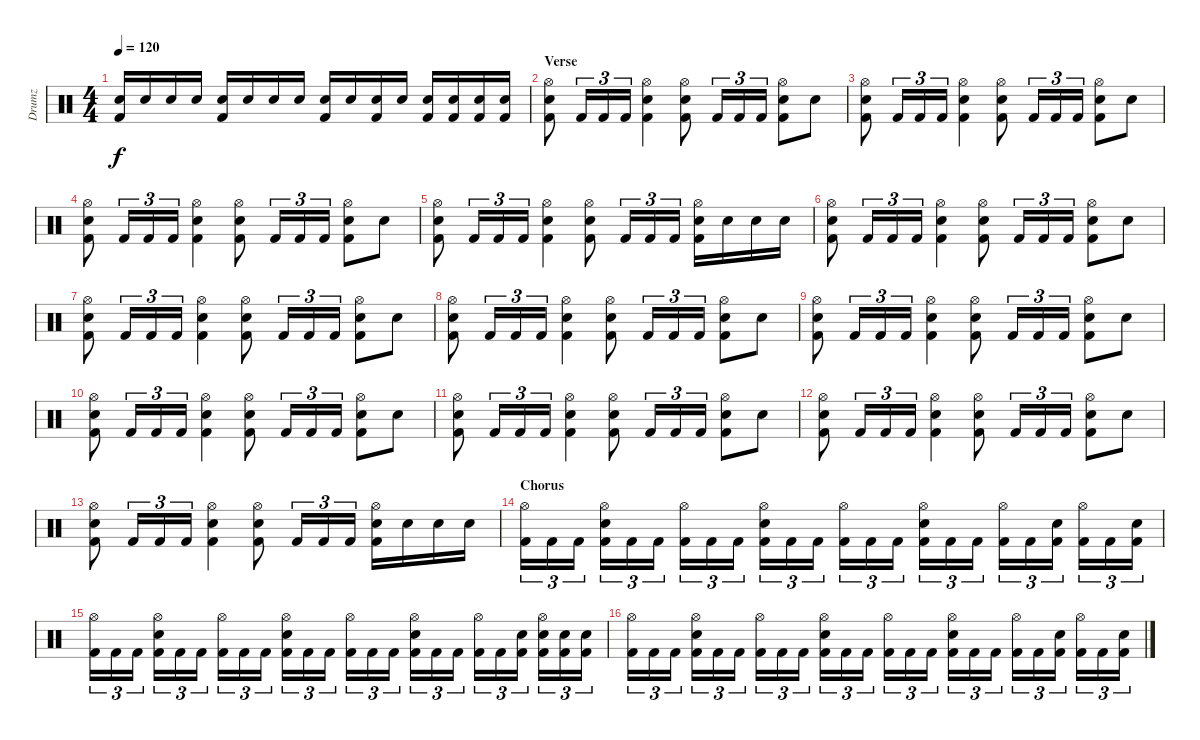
\track ("Drumz" "Drumz") {instrument percussion}
\staff {score}
\articulation defaults
\ts (4 4)
\tempo 120
\clef neutral
\ks c
("Snare (hit) 2" "Kick (hit) 2").16{dy f} "Snare (hit) 2".16 "Snare (hit) 2".16 "Snare (hit) 2".16 ("Snare (hit) 2" "Kick (hit) 2").16 "Snare (hit) 2".16 "Snare (hit) 2".16 "Snare (hit) 2".16 ("Snare (hit) 2" "Kick (hit) 2").16 "Snare (hit) 2".16 ("Snare (hit) 2" "Kick (hit) 2").16 "Snare (hit) 2".16 ("Snare (hit) 2" "Kick (hit) 2").16 ("Snare (hit) 2" "Kick (hit) 2").16 ("Snare (hit) 2" "Kick (hit) 2").16 ("Snare (hit) 2" "Kick (hit) 2").16 |
\section ("" "Verse")
("Hi-Hat (open)" "Snare (hit) 2" "Kick (hit) 2").8 "Kick (hit) 2".16{tu (3 2)} "Kick (hit) 2".16{tu (3 2)} "Kick (hit) 2".16{tu (3 2)} ("Hi-Hat (open)" "Snare (hit) 2" "Kick (hit) 2").4 ("Hi-Hat (open)" "Snare (hit) 2" "Kick (hit) 2").8 "Kick (hit) 2".16{tu (3 2)} "Kick (hit) 2".16{tu (3 2)} "Kick (hit) 2".16{tu (3 2)} ("Hi-Hat (open)" "Snare (hit) 2" "Kick (hit) 2").8 "Snare (hit) 2".8 |
("Hi-Hat (open)" "Snare (hit) 2" "Kick (hit) 2").8 "Kick (hit) 2".16{tu (3 2)} "Kick (hit) 2".16{tu (3 2)} "Kick (hit) 2".16{tu (3 2)} ("Hi-Hat (open)" "Snare (hit) 2" "Kick (hit) 2").4 ("Hi-Hat (open)" "Snare (hit) 2" "Kick (hit) 2").8 "Kick (hit) 2".16{tu (3 2)} "Kick (hit) 2".16{tu (3 2)} "Kick (hit) 2".16{tu (3 2)} ("Hi-Hat (open)" "Snare (hit) 2" "Kick (hit) 2").8 "Snare (hit) 2".8 |
("Hi-Hat (open)" "Snare (hit) 2" "Kick (hit) 2").8 "Kick (hit) 2".16{tu (3 2)} "Kick (hit) 2".16{tu (3 2)} "Kick (hit) 2".16{tu (3 2)} ("Hi-Hat (open)" "Snare (hit) 2" "Kick (hit) 2").4 ("Hi-Hat (open)" "Snare (hit) 2" "Kick (hit) 2").8 "Kick (hit) 2".16{tu (3 2)} "Kick (hit) 2".16{tu (3 2)} "Kick (hit) 2".16{tu (3 2)} ("Hi-Hat (open)" "Snare (hit) 2" "Kick (hit) 2").8 "Snare (hit) 2".8 |
("Hi-Hat (open)" "Snare (hit) 2" "Kick (hit) 2").8 "Kick (hit) 2".16{tu (3 2)} "Kick (hit) 2".16{tu (3 2)} "Kick (hit) 2".16{tu (3 2)} ("Hi-Hat (open)" "Snare (hit) 2" "Kick (hit) 2").4 ("Hi-Hat (open)" "Snare (hit) 2" "Kick (hit) 2").8 "Kick (hit) 2".16{tu (3 2)} "Kick (hit) 2".16{tu (3 2)} "Kick (hit) 2".16{tu (3 2)} ("Hi-Hat (open)" "Snare (hit) 2" "Kick (hit) 2").16 "Snare (hit) 2".16 "Snare (hit) 2".16 "Snare (hit) 2".16 |
("Hi-Hat (open)" "Snare (hit) 2" "Kick (hit) 2").8 "Kick (hit) 2".16{tu (3 2)} "Kick (hit) 2".16{tu (3 2)} "Kick (hit) 2".16{tu (3 2)} ("Hi-Hat (open)" "Snare (hit) 2" "Kick (hit) 2").4 ("Hi-Hat (open)" "Snare (hit) 2" "Kick (hit) 2").8 "Kick (hit) 2".16{tu (3 2)} "Kick (hit) 2".16{tu (3 2)} "Kick (hit) 2".16{tu (3 2)} ("Hi-Hat (open)" "Snare (hit) 2" "Kick (hit) 2").8 "Snare (hit) 2".8 |
("Hi-Hat (open)" "Snare (hit) 2" "Kick (hit) 2").8 "Kick (hit) 2".16{tu (3 2)} "Kick (hit) 2".16{tu (3 2)} "Kick (hit) 2".16{tu (3 2)} ("Hi-Hat (open)" "Snare (hit) 2" "Kick (hit) 2").4 ("Hi-Hat (open)" "Snare (hit) 2" "Kick (hit) 2").8 "Kick (hit) 2".16{tu (3 2)} "Kick (hit) 2".16{tu (3 2)} "Kick (hit) 2".16{tu (3 2)} ("Hi-Hat (open)" "Snare (hit) 2" "Kick (hit) 2").8 "Snare (hit) 2".8 |
("Hi-Hat (open)" "Snare (hit) 2" "Kick (hit) 2").8 "Kick (hit) 2".16{tu (3 2)} "Kick (hit) 2".16{tu (3 2)} "Kick (hit) 2".16{tu (3 2)} ("Hi-Hat (open)" "Snare (hit) 2" "Kick (hit) 2").4 ("Hi-Hat (open)" "Snare (hit) 2" "Kick (hit) 2").8 "Kick (hit) 2".16{tu (3 2)} "Kick (hit) 2".16{tu (3 2)} "Kick (hit) 2".16{tu (3 2)} ("Hi-Hat (open)" "Snare (hit) 2" "Kick (hit) 2").8 "Snare (hit) 2".8 |
("Hi-Hat (open)" "Snare (hit) 2" "Kick (hit) 2").8 "Kick (hit) 2".16{tu (3 2)} "Kick (hit) 2".16{tu (3 2)} "Kick (hit) 2".16{tu (3 2)} ("Hi-Hat (open)" "Snare (hit) 2" "Kick (hit) 2").4 ("Hi-Hat (open)" "Snare (hit) 2" "Kick (hit) 2").8 "Kick (hit) 2".16{tu (3 2)} "Kick (hit) 2".16{tu (3 2)} "Kick (hit) 2".16{tu (3 2)} ("Hi-Hat (open)" "Snare (hit) 2" "Kick (hit) 2").8 "Snare (hit) 2".8 |
("Hi-Hat (open)" "Snare (hit) 2" "Kick (hit) 2").8 "Kick (hit) 2".16{tu (3 2)} "Kick (hit) 2".16{tu (3 2)} "Kick (hit) 2".16{tu (3 2)} ("Hi-Hat (open)" "Snare (hit) 2" "Kick (hit) 2").4 ("Hi-Hat (open)" "Snare (hit) 2" "Kick (hit) 2").8 "Kick (hit) 2".16{tu (3 2)} "Kick (hit) 2".16{tu (3 2)} "Kick (hit) 2".16{tu (3 2)} ("Hi-Hat (open)" "Snare (hit) 2" "Kick (hit) 2").8 "Snare (hit) 2".8 |
("Hi-Hat (open)" "Snare (hit) 2" "Kick (hit) 2").8 "Kick (hit) 2".16{tu (3 2)} "Kick (hit) 2".16{tu (3 2)} "Kick (hit) 2".16{tu (3 2)} ("Hi-Hat (open)" "Snare (hit) 2" "Kick (hit) 2").4 ("Hi-Hat (open)" "Snare (hit) 2" "Kick (hit) 2").8 "Kick (hit) 2".16{tu (3 2)} "Kick (hit) 2".16{tu (3 2)} "Kick (hit) 2".16{tu (3 2)} ("Hi-Hat (open)" "Snare (hit) 2" "Kick (hit) 2").8 "Snare (hit) 2".8 |
("Hi-Hat (open)" "Snare (hit) 2" "Kick (hit) 2").8 "Kick (hit) 2".16{tu (3 2)} "Kick (hit) 2".16{tu (3 2)} "Kick (hit) 2".16{tu (3 2)} ("Hi-Hat (open)" "Snare (hit) 2" "Kick (hit) 2").4 ("Hi-Hat (open)" "Snare (hit) 2" "Kick (hit) 2").8 "Kick (hit) 2".16{tu (3 2)} "Kick (hit) 2".16{tu (3 2)} "Kick (hit) 2".16{tu (3 2)} ("Hi-Hat (open)" "Snare (hit) 2" "Kick (hit) 2").8 "Snare (hit) 2".8 |
("Hi-Hat (open)" "Snare (hit) 2" "Kick (hit) 2").8 "Kick (hit) 2".16{tu (3 2)} "Kick (hit) 2".16{tu (3 2)} "Kick (hit) 2".16{tu (3 2)} ("Hi-Hat (open)" "Snare (hit) 2" "Kick (hit) 2").4 ("Hi-Hat (open)" "Snare (hit) 2" "Kick (hit) 2").8 "Kick (hit) 2".16{tu (3 2)} "Kick (hit) 2".16{tu (3 2)} "Kick (hit) 2".16{tu (3 2)} ("Hi-Hat (open)" "Snare (hit) 2" "Kick (hit) 2").16 "Snare (hit) 2".16 "Snare (hit) 2".16 "Snare (hit) 2".16 |
\section ("" "Chorus")
("Hi-Hat (open)" "Kick (hit) 2").16{tu (3 2)} "Kick (hit) 2".16{tu (3 2)} "Kick (hit) 2".16{tu (3 2)} ("Hi-Hat (open)" "Snare (hit) 2" "Kick (hit) 2").16{tu (3 2)} "Kick (hit) 2".16{tu (3 2)} "Kick (hit) 2".16{tu (3 2)} ("Hi-Hat (open)" "Kick (hit) 2").16{tu (3 2)} "Kick (hit) 2".16{tu (3 2)} "Kick (hit) 2".16{tu (3 2)} ("Hi-Hat (open)" "Snare (hit) 2" "Kick (hit) 2").16{tu (3 2)} "Kick (hit) 2".16{tu (3 2)} "Kick (hit) 2".16{tu (3 2)} ("Hi-Hat (open)" "Kick (hit) 2").16{tu (3 2)} "Kick (hit) 2".16{tu (3 2)} "Kick (hit) 2".16{tu (3 2)} ("Hi-Hat (open)" "Snare (hit) 2" "Kick (hit) 2").16{tu (3 2)} "Kick (hit) 2".16{tu (3 2)} "Kick (hit) 2".16{tu (3 2)} ("Hi-Hat (open)" "Kick (hit) 2").16{tu (3 2)} "Kick (hit) 2".16{tu (3 2)} ("Snare (hit) 2" "Kick (hit) 2").16{tu (3 2)} ("Hi-Hat (open)" "Kick (hit) 2").16{tu (3 2)} "Kick (hit) 2".16{tu (3 2)} ("Snare (hit) 2" "Kick (hit) 2").16{tu (3 2)} |
("Hi-Hat (open)" "Kick (hit) 2").16{tu (3 2)} "Kick (hit) 2".16{tu (3 2)} "Kick (hit) 2".16{tu (3 2)} ("Hi-Hat (open)" "Snare (hit) 2" "Kick (hit) 2").16{tu (3 2)} "Kick (hit) 2".16{tu (3 2)} "Kick (hit) 2".16{tu (3 2)} ("Hi-Hat (open)" "Kick (hit) 2").16{tu (3 2)} "Kick (hit) 2".16{tu (3 2)} "Kick (hit) 2".16{tu (3 2)} ("Hi-Hat (open)" "Snare (hit) 2" "Kick (hit) 2").16{tu (3 2)} "Kick (hit) 2".16{tu (3 2)} "Kick (hit) 2".16{tu (3 2)} ("Hi-Hat (open)" "Kick (hit) 2").16{tu (3 2)} "Kick (hit) 2".16{tu (3 2)} "Kick (hit) 2".16{tu (3 2)} ("Hi-Hat (open)" "Snare (hit) 2" "Kick (hit) 2").16{tu (3 2)} "Kick (hit) 2".16{tu (3 2)} "Kick (hit) 2".16{tu (3 2)} ("Hi-Hat (open)" "Kick (hit) 2").16{tu (3 2)} "Kick (hit) 2".16{tu (3 2)} ("Snare (hit) 2" "Kick (hit) 2").16{tu (3 2)} ("Hi-Hat (open)" "Snare (hit) 2" "Kick (hit) 2").16{tu (3 2)} ("Snare (hit) 2" "Kick (hit) 2").16{tu (3 2)} ("Snare (hit) 2" "Kick (hit) 2").16{tu (3 2)} |
("Hi-Hat (open)" "Kick (hit) 2").16{tu (3 2)} "Kick (hit) 2".16{tu (3 2)} "Kick (hit) 2".16{tu (3 2)} ("Hi-Hat (open)" "Snare (hit) 2" "Kick (hit) 2").16{tu (3 2)} "Kick (hit) 2".16{tu (3 2)} "Kick (hit) 2".16{tu (3 2)} ("Hi-Hat (open)" "Kick (hit) 2").16{tu (3 2)} "Kick (hit) 2".16{tu (3 2)} "Kick (hit) 2".16{tu (3 2)} ("Hi-Hat (open)" "Snare (hit) 2" "Kick (hit) 2").16{tu (3 2)} "Kick (hit) 2".16{tu (3 2)} "Kick (hit) 2".16{tu (3 2)} ("Hi-Hat (open)" "Kick (hit) 2").16{tu (3 2)} "Kick (hit) 2".16{tu (3 2)} "Kick (hit) 2".16{tu (3 2)} ("Hi-Hat (open)" "Snare (hit) 2" "Kick (hit) 2").16{tu (3 2)} "Kick (hit) 2".16{tu (3 2)} "Kick (hit) 2".16{tu (3 2)} ("Hi-Hat (open)" "Kick (hit) 2").16{tu (3 2)} "Kick (hit) 2".16{tu (3 2)} ("Snare (hit) 2" "Kick (hit) 2").16{tu (3 2)} ("Hi-Hat (open)" "Kick (hit) 2").16{tu (3 2)} "Kick (hit) 2".16{tu (3 2)} ("Snare (hit) 2" "Kick (hit) 2").16{tu (3 2)}
